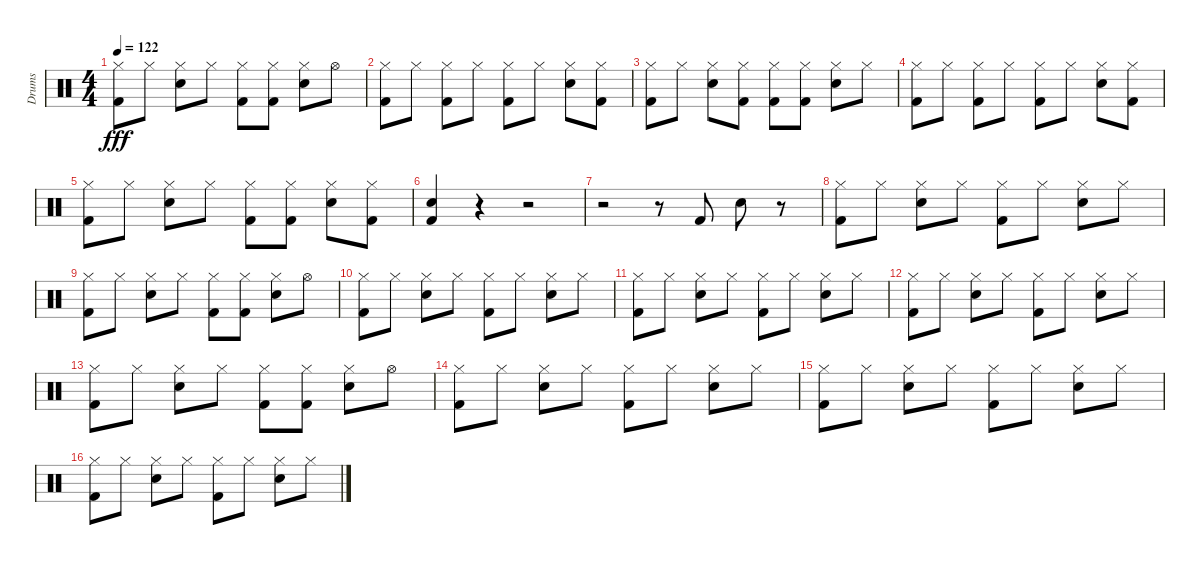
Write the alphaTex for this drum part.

\track ("Drums" "Drums") {instrument percussion}
\staff {score}
\articulation defaults
\ts (4 4)
\tempo 122
\clef neutral
\ks c
("Hi-Hat (closed)" "Kick (hit) 2").8{dy fff} "Hi-Hat (closed)".8 ("Hi-Hat (closed)" "Snare (hit) 2").8 "Hi-Hat (closed)".8 ("Hi-Hat (closed)" "Kick (hit) 2").8 ("Hi-Hat (closed)" "Kick (hit) 2").8 ("Hi-Hat (closed)" "Snare (hit) 2").8 "Hi-Hat (open)".8 |
("Hi-Hat (closed)" "Kick (hit) 2").8 "Hi-Hat (closed)".8 ("Hi-Hat (closed)" "Kick (hit) 2").8 "Hi-Hat (closed)".8 ("Hi-Hat (closed)" "Kick (hit) 2").8 "Hi-Hat (closed)".8 ("Hi-Hat (closed)" "Snare (hit) 2").8 ("Hi-Hat (closed)" "Kick (hit) 2").8 |
("Hi-Hat (closed)" "Kick (hit) 2").8 "Hi-Hat (closed)".8 ("Hi-Hat (closed)" "Snare (hit) 2").8 ("Hi-Hat (closed)" "Kick (hit) 2").8 ("Hi-Hat (closed)" "Kick (hit) 2").8 ("Hi-Hat (closed)" "Kick (hit) 2").8 ("Hi-Hat (closed)" "Snare (hit) 2").8 "Hi-Hat (closed)".8 |
("Hi-Hat (closed)" "Kick (hit) 2").8 "Hi-Hat (closed)".8 ("Hi-Hat (closed)" "Kick (hit) 2").8 "Hi-Hat (closed)".8 ("Hi-Hat (closed)" "Kick (hit) 2").8 "Hi-Hat (closed)".8 ("Hi-Hat (closed)" "Snare (hit) 2").8 ("Hi-Hat (closed)" "Kick (hit) 2").8 |
("Hi-Hat (closed)" "Kick (hit) 2").8 "Hi-Hat (closed)".8 ("Hi-Hat (closed)" "Snare (hit) 2").8 "Hi-Hat (closed)".8 ("Hi-Hat (closed)" "Kick (hit) 2").8 ("Hi-Hat (closed)" "Kick (hit) 2").8 ("Hi-Hat (closed)" "Snare (hit) 2").8 ("Hi-Hat (closed)" "Kick (hit) 2").8 |
("Snare (hit) 2" "Kick (hit) 2").4 r.4 r.2 |
r.2 r.8 "Kick (hit) 2".8 "Snare (hit) 2".8 r.8 |
("Hi-Hat (closed)" "Kick (hit) 2").8 "Hi-Hat (closed)".8 ("Hi-Hat (closed)" "Snare (hit) 2").8 "Hi-Hat (closed)".8 ("Hi-Hat (closed)" "Kick (hit) 2").8 "Hi-Hat (closed)".8 ("Hi-Hat (closed)" "Snare (hit) 2").8 "Hi-Hat (closed)".8 |
("Hi-Hat (closed)" "Kick (hit) 2").8 "Hi-Hat (closed)".8 ("Hi-Hat (closed)" "Snare (hit) 2").8 "Hi-Hat (closed)".8 ("Hi-Hat (closed)" "Kick (hit) 2").8 ("Hi-Hat (closed)" "Kick (hit) 2").8 ("Hi-Hat (closed)" "Snare (hit) 2").8 "Hi-Hat (open)".8 |
("Hi-Hat (closed)" "Kick (hit) 2").8 "Hi-Hat (closed)".8 ("Hi-Hat (closed)" "Snare (hit) 2").8 "Hi-Hat (closed)".8 ("Hi-Hat (closed)" "Kick (hit) 2").8 "Hi-Hat (closed)".8 ("Hi-Hat (closed)" "Snare (hit) 2").8 "Hi-Hat (closed)".8 |
("Hi-Hat (closed)" "Kick (hit) 2").8 "Hi-Hat (closed)".8 ("Hi-Hat (closed)" "Snare (hit) 2").8 "Hi-Hat (closed)".8 ("Hi-Hat (closed)" "Kick (hit) 2").8 "Hi-Hat (closed)".8 ("Hi-Hat (closed)" "Snare (hit) 2").8 "Hi-Hat (closed)".8 |
("Hi-Hat (closed)" "Kick (hit) 2").8 "Hi-Hat (closed)".8 ("Hi-Hat (closed)" "Snare (hit) 2").8 "Hi-Hat (closed)".8 ("Hi-Hat (closed)" "Kick (hit) 2").8 "Hi-Hat (closed)".8 ("Hi-Hat (closed)" "Snare (hit) 2").8 "Hi-Hat (closed)".8 |
("Hi-Hat (closed)" "Kick (hit) 2").8 "Hi-Hat (closed)".8 ("Hi-Hat (closed)" "Snare (hit) 2").8 "Hi-Hat (closed)".8 ("Hi-Hat (closed)" "Kick (hit) 2").8 ("Hi-Hat (closed)" "Kick (hit) 2").8 ("Hi-Hat (closed)" "Snare (hit) 2").8 "Hi-Hat (open)".8 |
("Hi-Hat (closed)" "Kick (hit) 2").8 "Hi-Hat (closed)".8 ("Hi-Hat (closed)" "Snare (hit) 2").8 "Hi-Hat (closed)".8 ("Hi-Hat (closed)" "Kick (hit) 2").8 "Hi-Hat (closed)".8 ("Hi-Hat (closed)" "Snare (hit) 2").8 "Hi-Hat (closed)".8 |
("Hi-Hat (closed)" "Kick (hit) 2").8 "Hi-Hat (closed)".8 ("Hi-Hat (closed)" "Snare (hit) 2").8 "Hi-Hat (closed)".8 ("Hi-Hat (closed)" "Kick (hit) 2").8 "Hi-Hat (closed)".8 ("Hi-Hat (closed)" "Snare (hit) 2").8 "Hi-Hat (closed)".8 |
("Hi-Hat (closed)" "Kick (hit) 2").8 "Hi-Hat (closed)".8 ("Hi-Hat (closed)" "Snare (hit) 2").8 "Hi-Hat (closed)".8 ("Hi-Hat (closed)" "Kick (hit) 2").8 "Hi-Hat (closed)".8 ("Hi-Hat (closed)" "Snare (hit) 2").8 "Hi-Hat (closed)".8
